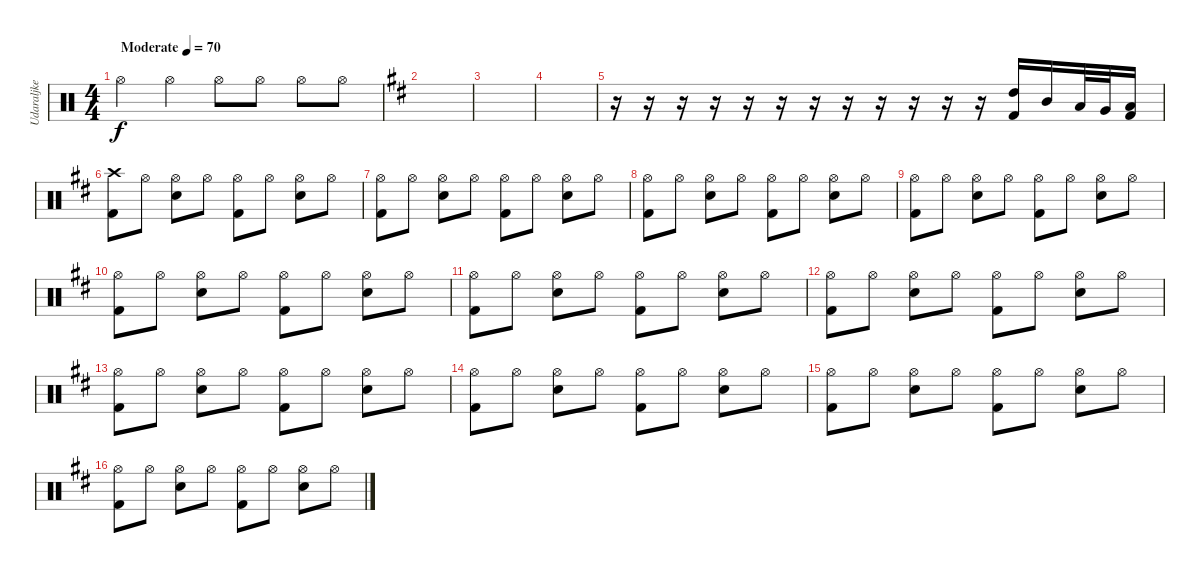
\track ("Udaraljke" "Udaraljke") {instrument percussion}
\staff {score}
\articulation defaults
\ts (4 4)
\tempo (70 "Moderate")
\clef neutral
\ks c "Hi-Hat (open)".4{dy f} "Hi-Hat (open)".4 "Hi-Hat (open)".8 "Hi-Hat (open)".8 "Hi-Hat (open)".8 "Hi-Hat (open)".8
|
\ks bminor
|
|
|
r.16 r.16 r.16 r.16 r.16 r.16 r.16 r.16 r.16 r.16 r.16 r.16 ("High Tom (hit)" "Kick (hit) 2").16 "Mid Tom (hit)".16 "Low Tom (hit)".32 "Very Low Tom (hit)".32 ("Low Floor Tom (hit)" "Kick (hit) 2").16 |
("Crash high (hit)" "Kick (hit) 2").8 "Hi-Hat (open)".8 ("Hi-Hat (open)" "Snare (hit) 2").8 "Hi-Hat (open)".8 ("Hi-Hat (open)" "Kick (hit) 2").8 "Hi-Hat (open)".8 ("Hi-Hat (open)" "Snare (hit) 2").8 "Hi-Hat (open)".8 |
("Hi-Hat (open)" "Kick (hit) 2").8 "Hi-Hat (open)".8 ("Hi-Hat (open)" "Snare (hit) 2").8 "Hi-Hat (open)".8 ("Hi-Hat (open)" "Kick (hit) 2").8 "Hi-Hat (open)".8 ("Hi-Hat (open)" "Snare (hit) 2").8 "Hi-Hat (open)".8 |
("Hi-Hat (open)" "Kick (hit) 2").8 "Hi-Hat (open)".8 ("Hi-Hat (open)" "Snare (hit) 2").8 "Hi-Hat (open)".8 ("Hi-Hat (open)" "Kick (hit) 2").8 "Hi-Hat (open)".8 ("Hi-Hat (open)" "Snare (hit) 2").8 "Hi-Hat (open)".8 |
("Hi-Hat (open)" "Kick (hit) 2").8 "Hi-Hat (open)".8 ("Hi-Hat (open)" "Snare (hit) 2").8 "Hi-Hat (open)".8 ("Hi-Hat (open)" "Kick (hit) 2").8 "Hi-Hat (open)".8 ("Hi-Hat (open)" "Snare (hit) 2").8 "Hi-Hat (open)".8 |
("Hi-Hat (open)" "Kick (hit) 2").8 "Hi-Hat (open)".8 ("Hi-Hat (open)" "Snare (hit) 2").8 "Hi-Hat (open)".8 ("Hi-Hat (open)" "Kick (hit) 2").8 "Hi-Hat (open)".8 ("Hi-Hat (open)" "Snare (hit) 2").8 "Hi-Hat (open)".8 |
("Hi-Hat (open)" "Kick (hit) 2").8 "Hi-Hat (open)".8 ("Hi-Hat (open)" "Snare (hit) 2").8 "Hi-Hat (open)".8 ("Hi-Hat (open)" "Kick (hit) 2").8 "Hi-Hat (open)".8 ("Hi-Hat (open)" "Snare (hit) 2").8 "Hi-Hat (open)".8 |
("Hi-Hat (open)" "Kick (hit) 2").8 "Hi-Hat (open)".8 ("Hi-Hat (open)" "Snare (hit) 2").8 "Hi-Hat (open)".8 ("Hi-Hat (open)" "Kick (hit) 2").8 "Hi-Hat (open)".8 ("Hi-Hat (open)" "Snare (hit) 2").8 "Hi-Hat (open)".8 |
("Hi-Hat (open)" "Kick (hit) 2").8 "Hi-Hat (open)".8 ("Hi-Hat (open)" "Snare (hit) 2").8 "Hi-Hat (open)".8 ("Hi-Hat (open)" "Kick (hit) 2").8 "Hi-Hat (open)".8 ("Hi-Hat (open)" "Snare (hit) 2").8 "Hi-Hat (open)".8 |
("Hi-Hat (open)" "Kick (hit) 2").8 "Hi-Hat (open)".8 ("Hi-Hat (open)" "Snare (hit) 2").8 "Hi-Hat (open)".8 ("Hi-Hat (open)" "Kick (hit) 2").8 "Hi-Hat (open)".8 ("Hi-Hat (open)" "Snare (hit) 2").8 "Hi-Hat (open)".8 |
("Hi-Hat (open)" "Kick (hit) 2").8 "Hi-Hat (open)".8 ("Hi-Hat (open)" "Snare (hit) 2").8 "Hi-Hat (open)".8 ("Hi-Hat (open)" "Kick (hit) 2").8 "Hi-Hat (open)".8 ("Hi-Hat (open)" "Snare (hit) 2").8 "Hi-Hat (open)".8 |
("Hi-Hat (open)" "Kick (hit) 2").8 "Hi-Hat (open)".8 ("Hi-Hat (open)" "Snare (hit) 2").8 "Hi-Hat (open)".8 ("Hi-Hat (open)" "Kick (hit) 2").8 "Hi-Hat (open)".8 ("Hi-Hat (open)" "Snare (hit) 2").8 "Hi-Hat (open)".8
